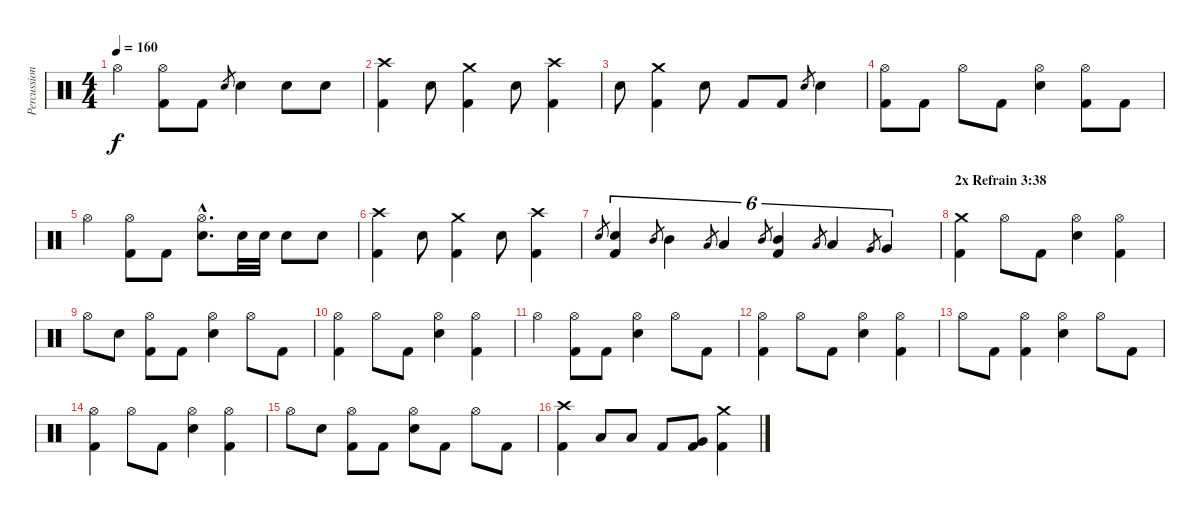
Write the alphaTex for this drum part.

\track ("Percussion" "Percussion") {instrument percussion}
\staff {score}
\articulation defaults
\ts (4 4)
\tempo 160
\clef neutral
\ks c "Hi-Hat (open)".4{dy f}
("Hi-Hat (open)" "Kick (hit) 2").8 "Kick (hit) 2".8 "Snare (hit) 2".8{gr} "Snare (hit) 2".4 "Snare (hit) 2".8 "Snare (hit) 2".8 |
("Crash high (hit)" "Kick (hit) 2").4 "Snare (hit) 2".8 ("Crash medium (hit)" "Kick (hit) 2").4 "Snare (hit) 2".8 ("Crash high (hit)" "Kick (hit) 2").4 |
"Snare (hit) 2".8 ("Crash medium (hit)" "Kick (hit) 2").4 "Snare (hit) 2".8 "Kick (hit) 2".8 "Kick (hit) 2".8 "Snare (hit) 2".8{gr} "Snare (hit) 2".4 |
("Hi-Hat (open)" "Kick (hit) 2").8 "Kick (hit) 2".8 "Hi-Hat (open)".8 "Kick (hit) 2".8 ("Hi-Hat (open)" "Snare (hit) 2").4 ("Hi-Hat (open)" "Kick (hit) 2").8 "Kick (hit) 2".8 |
"Hi-Hat (open)".4 ("Hi-Hat (open)" "Kick (hit) 2").8 "Kick (hit) 2".8 ("Hi-Hat (open)"{hac} "Snare (hit) 2"{hac}).8{d} "Snare (hit) 2".32 "Snare (hit) 2".32 "Snare (hit) 2".8 "Snare (hit) 2".8 |
("Crash high (hit)" "Kick (hit) 2").4 "Snare (hit) 2".8 ("Crash medium (hit)" "Kick (hit) 2").4 "Snare (hit) 2".8 ("Crash high (hit)" "Kick (hit) 2").4 |
"Snare (hit) 2".8{gr} ("Snare (hit) 2" "Kick (hit) 2").4{tu (6 4)} "Mid Tom (hit)".8{gr} "Mid Tom (hit)".4{tu (6 4)} "Low Tom (hit)".8{gr} "Low Tom (hit)".4{tu (6 4)} "Mid Tom (hit)".8{gr} ("Mid Tom (hit)" "Kick (hit) 2").4{tu (6 4)} "Low Tom (hit)".8{gr} "Low Tom (hit)".4{tu (6 4)} "Very Low Tom (hit)".8{gr} "Very Low Tom (hit)".4{tu (6 4)} |
\section ("" "2x Refrain 3:38")
("Crash medium (hit)" "Kick (hit) 2").4 "Hi-Hat (open)".8 "Kick (hit) 2".8 ("Hi-Hat (open)" "Snare (hit) 2").4 ("Hi-Hat (open)" "Kick (hit) 2").4 |
"Hi-Hat (open)".8 "Snare (hit) 2".8 ("Hi-Hat (open)" "Kick (hit) 2").8 "Kick (hit) 2".8 ("Hi-Hat (open)" "Snare (hit) 2").4 "Hi-Hat (open)".8 "Kick (hit) 2".8 |
("Hi-Hat (open)" "Kick (hit) 2").4 "Hi-Hat (open)".8 "Kick (hit) 2".8 ("Hi-Hat (open)" "Snare (hit) 2").4 ("Hi-Hat (open)" "Kick (hit) 2").4 |
"Hi-Hat (open)".4 ("Hi-Hat (open)" "Kick (hit) 2").8 "Kick (hit) 2".8 ("Hi-Hat (open)" "Snare (hit) 2").4 "Hi-Hat (open)".8 "Kick (hit) 2".8 |
("Hi-Hat (open)" "Kick (hit) 2").4 "Hi-Hat (open)".8 "Kick (hit) 2".8 ("Hi-Hat (open)" "Snare (hit) 2").4 ("Hi-Hat (open)" "Kick (hit) 2").4 |
"Hi-Hat (open)".8 "Kick (hit) 2".8 ("Hi-Hat (open)" "Kick (hit) 2").4 ("Hi-Hat (open)" "Snare (hit) 2").4 "Hi-Hat (open)".8 "Kick (hit) 2".8 |
("Hi-Hat (open)" "Kick (hit) 2").4 "Hi-Hat (open)".8 "Kick (hit) 2".8 ("Hi-Hat (open)" "Snare (hit) 2").4 ("Hi-Hat (open)" "Kick (hit) 2").4 |
"Hi-Hat (open)".8 "Snare (hit) 2".8 ("Hi-Hat (open)" "Kick (hit) 2").8 "Kick (hit) 2".8 ("Hi-Hat (open)" "Snare (hit) 2").8 "Kick (hit) 2".8 "Hi-Hat (open)".8 "Kick (hit) 2".8 |
("Crash high (hit)" "Kick (hit) 2").4 "Low Tom (hit)".8 "Low Tom (hit)".8 "Kick (hit) 2".8 ("Very Low Tom (hit)" "Kick (hit) 2").8 ("Crash medium (hit)" "Kick (hit) 2").4
